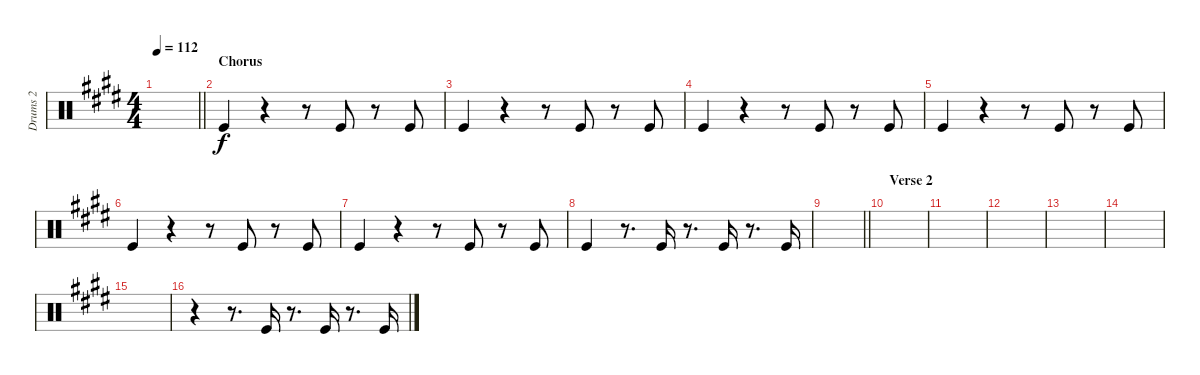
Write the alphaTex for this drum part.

\track ("Drums 2" "Drums 2") {instrument percussion}
\staff {score}
\articulation defaults
\ts (4 4)
\tempo 112
\clef neutral
\barLineRight lightlight
\ks e
|
\section ("" "Chorus")
"Kick (hit)".4 r.4 r.8 "Kick (hit)".8 r.8 "Kick (hit)".8 |
"Kick (hit)".4 r.4 r.8 "Kick (hit)".8 r.8 "Kick (hit)".8 |
"Kick (hit)".4 r.4 r.8 "Kick (hit)".8 r.8 "Kick (hit)".8 |
"Kick (hit)".4 r.4 r.8 "Kick (hit)".8 r.8 "Kick (hit)".8 |
"Kick (hit)".4 r.4 r.8 "Kick (hit)".8 r.8 "Kick (hit)".8 |
"Kick (hit)".4 r.4 r.8 "Kick (hit)".8 r.8 "Kick (hit)".8 |
"Kick (hit)".4 r.8{d} "Kick (hit)".16 r.8{d} "Kick (hit)".16 r.8{d} "Kick (hit)".16 |
\barLineRight lightlight
|
\section ("" "Verse 2")
|
|
|
|
|
|
r.4 r.8{d} "Kick (hit)".16 r.8{d} "Kick (hit)".16 r.8{d} "Kick (hit)".16
